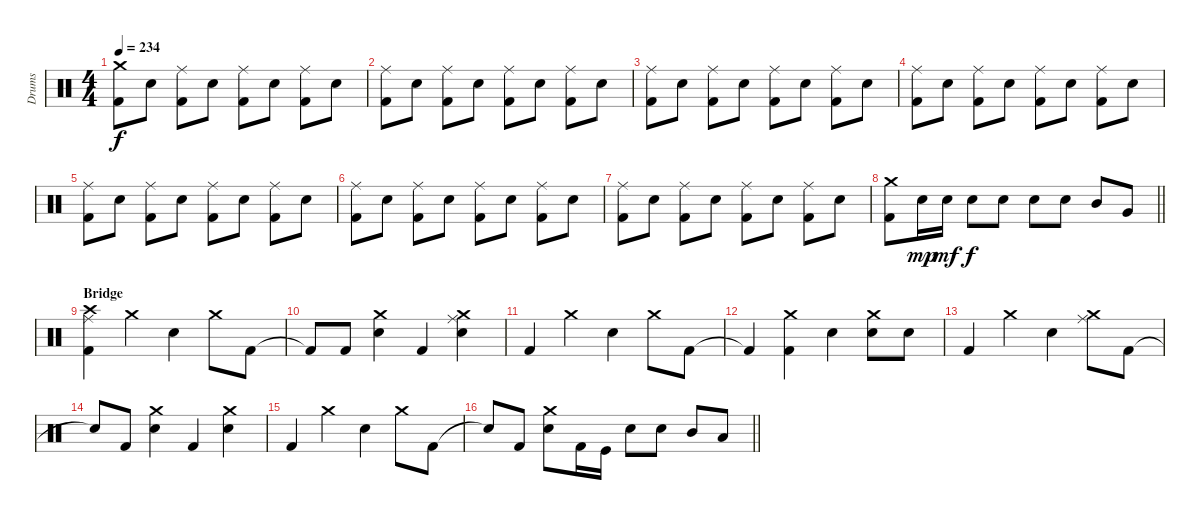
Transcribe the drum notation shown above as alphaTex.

\track ("Drums" "Drums") {instrument percussion}
\staff {score}
\articulation defaults
\ts (4 4)
\tempo 234
\clef neutral
\ks c
("Crash medium (hit)" "Kick (hit) 2").8{dy f} "Snare (hit) 2".8 ("Ride (middle)" "Kick (hit) 2").8 "Snare (hit) 2".8 ("Ride (middle)" "Kick (hit) 2").8 "Snare (hit) 2".8 ("Ride (middle)" "Kick (hit) 2").8 "Snare (hit) 2".8 |
("Ride (middle)" "Kick (hit) 2").8 "Snare (hit) 2".8 ("Ride (middle)" "Kick (hit) 2").8 "Snare (hit) 2".8 ("Ride (middle)" "Kick (hit) 2").8 "Snare (hit) 2".8 ("Ride (middle)" "Kick (hit) 2").8 "Snare (hit) 2".8 |
("Ride (middle)" "Kick (hit) 2").8 "Snare (hit) 2".8 ("Ride (middle)" "Kick (hit) 2").8 "Snare (hit) 2".8 ("Ride (middle)" "Kick (hit) 2").8 "Snare (hit) 2".8 ("Ride (middle)" "Kick (hit) 2").8 "Snare (hit) 2".8 |
("Ride (middle)" "Kick (hit) 2").8 "Snare (hit) 2".8 ("Ride (middle)" "Kick (hit) 2").8 "Snare (hit) 2".8 ("Ride (middle)" "Kick (hit) 2").8 "Snare (hit) 2".8 ("Ride (middle)" "Kick (hit) 2").8 "Snare (hit) 2".8 |
("Ride (middle)" "Kick (hit) 2").8 "Snare (hit) 2".8 ("Ride (middle)" "Kick (hit) 2").8 "Snare (hit) 2".8 ("Ride (middle)" "Kick (hit) 2").8 "Snare (hit) 2".8 ("Ride (middle)" "Kick (hit) 2").8 "Snare (hit) 2".8 |
("Ride (middle)" "Kick (hit) 2").8 "Snare (hit) 2".8 ("Ride (middle)" "Kick (hit) 2").8 "Snare (hit) 2".8 ("Ride (middle)" "Kick (hit) 2").8 "Snare (hit) 2".8 ("Ride (middle)" "Kick (hit) 2").8 "Snare (hit) 2".8 |
("Ride (middle)" "Kick (hit) 2").8 "Snare (hit) 2".8 ("Ride (middle)" "Kick (hit) 2").8 "Snare (hit) 2".8 ("Ride (middle)" "Kick (hit) 2").8 "Snare (hit) 2".8 ("Ride (middle)" "Kick (hit) 2").8 "Snare (hit) 2".8 |
\barLineRight lightlight
("Crash medium (hit)" "Kick (hit) 2").8 "Snare (hit) 2".16{dy mp} "Snare (hit) 2".16{dy mf} "Snare (hit) 2".8{dy f} "Snare (hit) 2".8 "Snare (hit) 2".8 "Snare (hit) 2".8 "Mid Tom (hit)".8 "Very Low Tom (hit)".8 |
\section ("" "Bridge")
("Crash high (hit)" "Ride (middle)" "Kick (hit) 2").4 "Crash medium (hit)".4 "Snare (hit) 2".4 "Crash medium (hit)".8 "Kick (hit) 2".8 |
"Kick (hit) 2"{t}.8 "Kick (hit) 2".8 ("Crash medium (hit)" "Snare (hit) 2").4 "Kick (hit) 2".4 ("Crash medium (hit)" "Ride (middle)" "Snare (hit) 2").4 |
"Kick (hit) 2".4 "Crash medium (hit)".4 "Snare (hit) 2".4 "Crash medium (hit)".8 "Kick (hit) 2".8 |
"Kick (hit) 2"{t}.4 ("Crash medium (hit)" "Kick (hit) 2").4 "Snare (hit) 2".4 ("Crash medium (hit)" "Snare (hit) 2").8 "Snare (hit) 2".8 |
"Kick (hit) 2".4 "Crash medium (hit)".4 "Snare (hit) 2".4 ("Crash medium (hit)" "Ride (middle)").8 "Kick (hit) 2".8 |
"Snare (hit)"{t}.8 "Kick (hit) 2".8 ("Crash medium (hit)" "Snare (hit) 2").4 "Kick (hit) 2".4 ("Crash medium (hit)" "Snare (hit) 2").4 |
"Kick (hit) 2".4 "Crash medium (hit)".4 "Snare (hit) 2".4 "Crash medium (hit)".8 "Kick (hit) 2".8 |
\barLineRight lightlight "Snare (hit)"{t}.8 "Kick (hit) 2".8
("Crash medium (hit)" "Snare (hit) 2").8 "Kick (hit) 2".16 "Kick (hit)".16 "Snare (hit) 2".8 "Snare (hit) 2".8 "Mid Tom (hit)".8 "Low Tom (hit)".8
